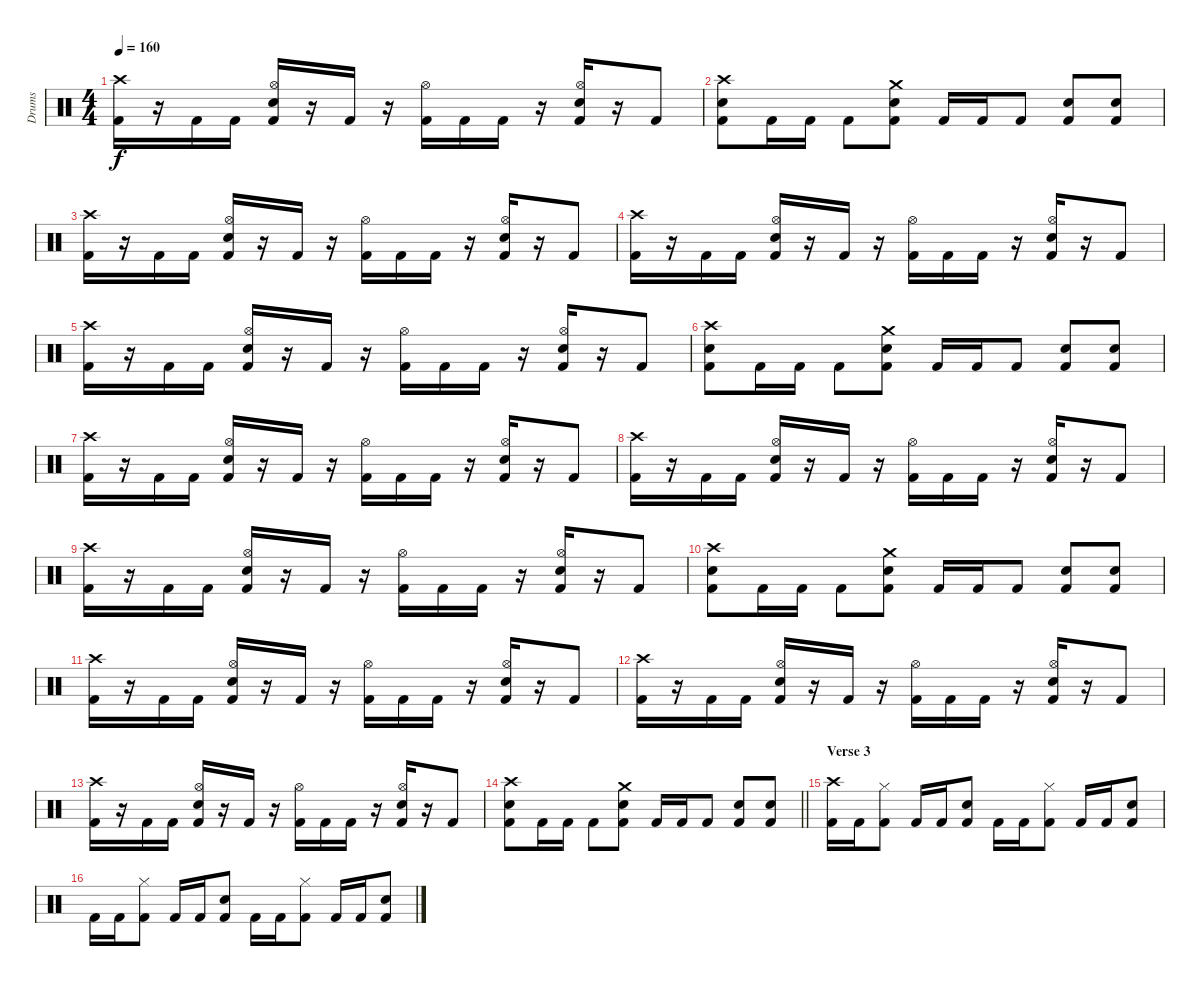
\track ("Drums" "Drums") {instrument percussion}
\staff {score}
\articulation defaults
\ts (4 4)
\tempo 160
\clef neutral
\ks c
("Crash high (hit)" "Kick (hit) 2").16{dy f} r.16 "Kick (hit) 2".16 "Kick (hit) 2".16 ("Hi-Hat (open)" "Electric Snare (hit)" "Kick (hit) 2").16 r.16 "Kick (hit) 2".16 r.16 ("Hi-Hat (open)" "Kick (hit) 2").16 "Kick (hit) 2".16 "Kick (hit) 2".16 r.16 ("Hi-Hat (open)" "Electric Snare (hit)" "Kick (hit) 2").16 r.16 "Kick (hit) 2".8 |
("Crash high (hit)" "Electric Snare (hit)" "Kick (hit) 2").8 "Kick (hit) 2".16 "Kick (hit) 2".16 "Kick (hit) 2".8 ("Crash medium (hit)" "Electric Snare (hit)" "Kick (hit) 2").8 "Kick (hit) 2".16 "Kick (hit) 2".16 "Kick (hit) 2".8 ("Electric Snare (hit)" "Kick (hit) 2").8 ("Electric Snare (hit)" "Kick (hit) 2").8 |
("Crash high (hit)" "Kick (hit) 2").16 r.16 "Kick (hit) 2".16 "Kick (hit) 2".16 ("Hi-Hat (open)" "Electric Snare (hit)" "Kick (hit) 2").16 r.16 "Kick (hit) 2".16 r.16 ("Hi-Hat (open)" "Kick (hit) 2").16 "Kick (hit) 2".16 "Kick (hit) 2".16 r.16 ("Hi-Hat (open)" "Electric Snare (hit)" "Kick (hit) 2").16 r.16 "Kick (hit) 2".8 |
("Crash high (hit)" "Kick (hit) 2").16 r.16 "Kick (hit) 2".16 "Kick (hit) 2".16 ("Hi-Hat (open)" "Electric Snare (hit)" "Kick (hit) 2").16 r.16 "Kick (hit) 2".16 r.16 ("Hi-Hat (open)" "Kick (hit) 2").16 "Kick (hit) 2".16 "Kick (hit) 2".16 r.16 ("Hi-Hat (open)" "Electric Snare (hit)" "Kick (hit) 2").16 r.16 "Kick (hit) 2".8 |
("Crash high (hit)" "Kick (hit) 2").16 r.16 "Kick (hit) 2".16 "Kick (hit) 2".16 ("Hi-Hat (open)" "Electric Snare (hit)" "Kick (hit) 2").16 r.16 "Kick (hit) 2".16 r.16 ("Hi-Hat (open)" "Kick (hit) 2").16 "Kick (hit) 2".16 "Kick (hit) 2".16 r.16 ("Hi-Hat (open)" "Electric Snare (hit)" "Kick (hit) 2").16 r.16 "Kick (hit) 2".8 |
("Crash high (hit)" "Electric Snare (hit)" "Kick (hit) 2").8 "Kick (hit) 2".16 "Kick (hit) 2".16 "Kick (hit) 2".8 ("Crash medium (hit)" "Electric Snare (hit)" "Kick (hit) 2").8 "Kick (hit) 2".16 "Kick (hit) 2".16 "Kick (hit) 2".8 ("Electric Snare (hit)" "Kick (hit) 2").8 ("Electric Snare (hit)" "Kick (hit) 2").8 |
("Crash high (hit)" "Kick (hit) 2").16 r.16 "Kick (hit) 2".16 "Kick (hit) 2".16 ("Hi-Hat (open)" "Electric Snare (hit)" "Kick (hit) 2").16 r.16 "Kick (hit) 2".16 r.16 ("Hi-Hat (open)" "Kick (hit) 2").16 "Kick (hit) 2".16 "Kick (hit) 2".16 r.16 ("Hi-Hat (open)" "Electric Snare (hit)" "Kick (hit) 2").16 r.16 "Kick (hit) 2".8 |
("Crash high (hit)" "Kick (hit) 2").16 r.16 "Kick (hit) 2".16 "Kick (hit) 2".16 ("Hi-Hat (open)" "Electric Snare (hit)" "Kick (hit) 2").16 r.16 "Kick (hit) 2".16 r.16 ("Hi-Hat (open)" "Kick (hit) 2").16 "Kick (hit) 2".16 "Kick (hit) 2".16 r.16 ("Hi-Hat (open)" "Electric Snare (hit)" "Kick (hit) 2").16 r.16 "Kick (hit) 2".8 |
("Crash high (hit)" "Kick (hit) 2").16 r.16 "Kick (hit) 2".16 "Kick (hit) 2".16 ("Hi-Hat (open)" "Electric Snare (hit)" "Kick (hit) 2").16 r.16 "Kick (hit) 2".16 r.16 ("Hi-Hat (open)" "Kick (hit) 2").16 "Kick (hit) 2".16 "Kick (hit) 2".16 r.16 ("Hi-Hat (open)" "Electric Snare (hit)" "Kick (hit) 2").16 r.16 "Kick (hit) 2".8 |
("Crash high (hit)" "Electric Snare (hit)" "Kick (hit) 2").8 "Kick (hit) 2".16 "Kick (hit) 2".16 "Kick (hit) 2".8 ("Crash medium (hit)" "Electric Snare (hit)" "Kick (hit) 2").8 "Kick (hit) 2".16 "Kick (hit) 2".16 "Kick (hit) 2".8 ("Electric Snare (hit)" "Kick (hit) 2").8 ("Electric Snare (hit)" "Kick (hit) 2").8 |
("Crash high (hit)" "Kick (hit) 2").16 r.16 "Kick (hit) 2".16 "Kick (hit) 2".16 ("Hi-Hat (open)" "Electric Snare (hit)" "Kick (hit) 2").16 r.16 "Kick (hit) 2".16 r.16 ("Hi-Hat (open)" "Kick (hit) 2").16 "Kick (hit) 2".16 "Kick (hit) 2".16 r.16 ("Hi-Hat (open)" "Electric Snare (hit)" "Kick (hit) 2").16 r.16 "Kick (hit) 2".8 |
("Crash high (hit)" "Kick (hit) 2").16 r.16 "Kick (hit) 2".16 "Kick (hit) 2".16 ("Hi-Hat (open)" "Electric Snare (hit)" "Kick (hit) 2").16 r.16 "Kick (hit) 2".16 r.16 ("Hi-Hat (open)" "Kick (hit) 2").16 "Kick (hit) 2".16 "Kick (hit) 2".16 r.16 ("Hi-Hat (open)" "Electric Snare (hit)" "Kick (hit) 2").16 r.16 "Kick (hit) 2".8 |
("Crash high (hit)" "Kick (hit) 2").16 r.16 "Kick (hit) 2".16 "Kick (hit) 2".16 ("Hi-Hat (open)" "Electric Snare (hit)" "Kick (hit) 2").16 r.16 "Kick (hit) 2".16 r.16 ("Hi-Hat (open)" "Kick (hit) 2").16 "Kick (hit) 2".16 "Kick (hit) 2".16 r.16 ("Hi-Hat (open)" "Electric Snare (hit)" "Kick (hit) 2").16 r.16 "Kick (hit) 2".8 |
\barLineRight lightlight
("Crash high (hit)" "Electric Snare (hit)" "Kick (hit) 2").8 "Kick (hit) 2".16 "Kick (hit) 2".16 "Kick (hit) 2".8 ("Crash medium (hit)" "Electric Snare (hit)" "Kick (hit) 2").8 "Kick (hit) 2".16 "Kick (hit) 2".16 "Kick (hit) 2".8 ("Electric Snare (hit)" "Kick (hit) 2").8 ("Electric Snare (hit)" "Kick (hit) 2").8 |
\section ("" "Verse 3")
("Crash high (hit)" "Kick (hit) 2").16 "Kick (hit) 2".16 ("Hi-Hat (closed)" "Kick (hit) 2").8 "Kick (hit) 2".16 "Kick (hit) 2".16 ("Electric Snare (hit)" "Kick (hit) 2").8 "Kick (hit) 2".16 "Kick (hit) 2".16 ("Hi-Hat (closed)" "Kick (hit) 2").8 "Kick (hit) 2".16 "Kick (hit) 2".16 ("Electric Snare (hit)" "Kick (hit) 2").8 |
"Kick (hit) 2".16 "Kick (hit) 2".16 ("Hi-Hat (closed)" "Kick (hit) 2").8 "Kick (hit) 2".16 "Kick (hit) 2".16 ("Electric Snare (hit)" "Kick (hit) 2").8 "Kick (hit) 2".16 "Kick (hit) 2".16 ("Hi-Hat (closed)" "Kick (hit) 2").8 "Kick (hit) 2".16 "Kick (hit) 2".16 ("Electric Snare (hit)" "Kick (hit) 2").8
